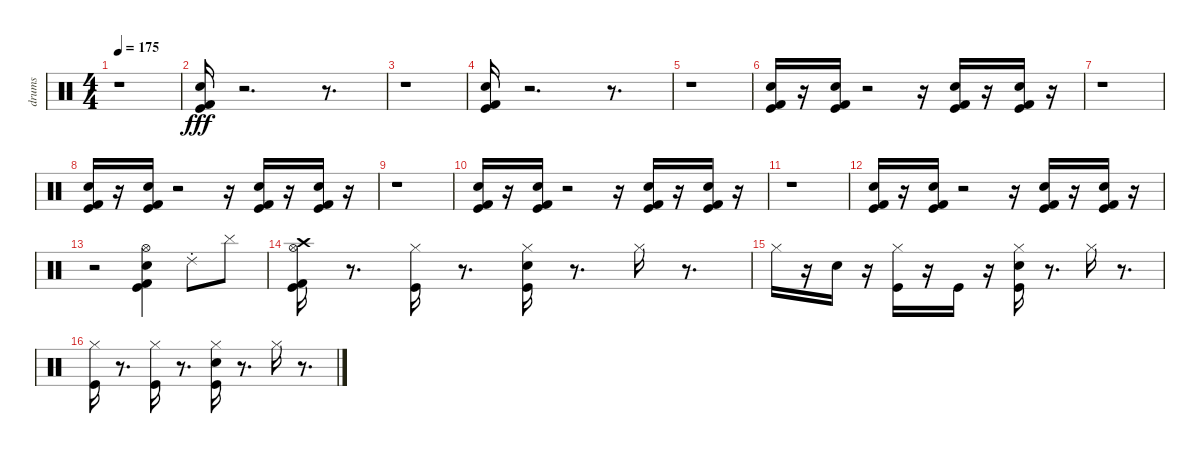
\track ("drums" "drums") {instrument percussion}
\staff {score}
\articulation defaults
\ts (4 4)
\tempo 175
\clef neutral
\ks c
r.1{dy fff} |
("Kick (hit) 2" "Kick (hit)" "Snare (hit) 2").16 r.2{d} r.8{d} |
r.1 |
("Kick (hit)" "Snare (hit) 2" "Kick (hit) 2").16 r.2{d} r.8{d} |
r.1 |
("Kick (hit) 2" "Kick (hit)" "Snare (hit) 2").16 r.16 ("Snare (hit) 2" "Kick (hit)" "Kick (hit) 2").16 r.2 r.16 ("Kick (hit) 2" "Kick (hit)" "Snare (hit) 2").16 r.16 ("Snare (hit) 2" "Kick (hit)" "Kick (hit) 2").16 r.16 |
r.1 |
("Kick (hit) 2" "Kick (hit)" "Snare (hit) 2").16 r.16 ("Snare (hit) 2" "Kick (hit)" "Kick (hit) 2").16 r.2 r.16 ("Kick (hit) 2" "Kick (hit)" "Snare (hit) 2").16 r.16 ("Snare (hit) 2" "Kick (hit)" "Kick (hit) 2").16 r.16 |
r.1 |
("Kick (hit) 2" "Kick (hit)" "Snare (hit) 2").16 r.16 ("Snare (hit) 2" "Kick (hit)" "Kick (hit) 2").16 r.2 r.16 ("Kick (hit) 2" "Kick (hit)" "Snare (hit) 2").16 r.16 ("Snare (hit) 2" "Kick (hit)" "Kick (hit) 2").16 r.16 |
r.1 |
("Kick (hit) 2" "Kick (hit)" "Snare (hit) 2").16 r.16 ("Snare (hit) 2" "Kick (hit)" "Kick (hit) 2").16 r.2 r.16 ("Kick (hit) 2" "Kick (hit)" "Snare (hit) 2").16 r.16 ("Snare (hit) 2" "Kick (hit)" "Kick (hit) 2").16 r.16 |
r.2 ("Hi-Hat (open)" "Kick (hit)" "Snare (hit) 2" "Kick (hit) 2").4 "Ride (choke) 2".8 "Cymbal (hit)".8 |
("Kick (hit)" "Hi-Hat (open)" "Crash high (hit)" "Kick (hit) 2").16 r.8{d} ("Kick (hit)" "Hi-Hat (closed)").16 r.8{d} ("Snare (hit) 2" "Kick (hit)" "Hi-Hat (closed)").16 r.8{d} "Hi-Hat (closed)".16 r.8{d} |
"Hi-Hat (closed)".16 r.16 "Snare (hit) 2".16 r.16 ("Hi-Hat (closed)" "Kick (hit)").16 r.16 "Kick (hit)".16 r.16 ("Hi-Hat (closed)" "Snare (hit) 2" "Kick (hit)").16 r.8{d} "Hi-Hat (closed)".16 r.8{d} |
("Kick (hit)" "Hi-Hat (closed)").16 r.8{d} ("Kick (hit)" "Hi-Hat (closed)").16 r.8{d} ("Snare (hit) 2" "Kick (hit)" "Hi-Hat (closed)").16 r.8{d} "Hi-Hat (closed)".16 r.8{d}
